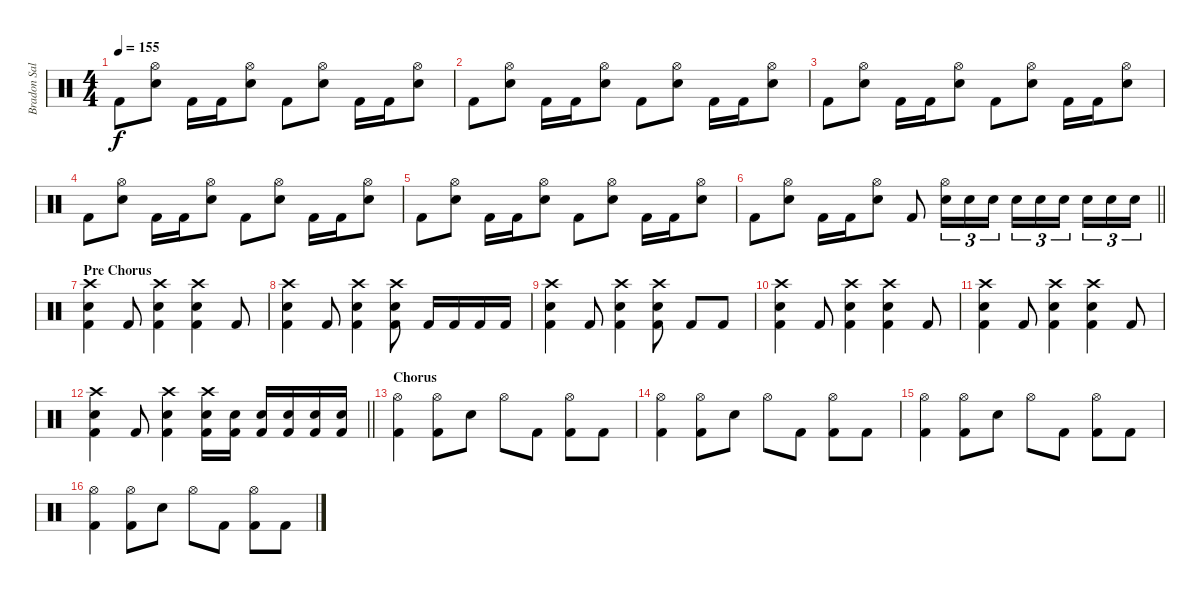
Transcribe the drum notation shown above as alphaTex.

\track ("Bradon Saller" "Bradon Sal") {instrument percussion}
\staff {score}
\articulation defaults
\ts (4 4)
\tempo 155
\clef neutral
\ks c "Kick (hit) 2".8{dy f}
("Hi-Hat (open)" "Electric Snare (hit)").8 "Kick (hit) 2".16 "Kick (hit) 2".16 ("Hi-Hat (open)" "Electric Snare (hit)").8 "Kick (hit) 2".8 ("Hi-Hat (open)" "Electric Snare (hit)").8 "Kick (hit) 2".16 "Kick (hit) 2".16 ("Hi-Hat (open)" "Electric Snare (hit)").8 |
"Kick (hit) 2".8 ("Hi-Hat (open)" "Electric Snare (hit)").8 "Kick (hit) 2".16 "Kick (hit) 2".16 ("Hi-Hat (open)" "Electric Snare (hit)").8 "Kick (hit) 2".8 ("Hi-Hat (open)" "Electric Snare (hit)").8 "Kick (hit) 2".16 "Kick (hit) 2".16 ("Hi-Hat (open)" "Electric Snare (hit)").8 |
"Kick (hit) 2".8 ("Hi-Hat (open)" "Electric Snare (hit)").8 "Kick (hit) 2".16 "Kick (hit) 2".16 ("Hi-Hat (open)" "Electric Snare (hit)").8 "Kick (hit) 2".8 ("Hi-Hat (open)" "Electric Snare (hit)").8 "Kick (hit) 2".16 "Kick (hit) 2".16 ("Hi-Hat (open)" "Electric Snare (hit)").8 |
"Kick (hit) 2".8 ("Hi-Hat (open)" "Electric Snare (hit)").8 "Kick (hit) 2".16 "Kick (hit) 2".16 ("Hi-Hat (open)" "Electric Snare (hit)").8 "Kick (hit) 2".8 ("Hi-Hat (open)" "Electric Snare (hit)").8 "Kick (hit) 2".16 "Kick (hit) 2".16 ("Hi-Hat (open)" "Electric Snare (hit)").8 |
"Kick (hit) 2".8 ("Hi-Hat (open)" "Electric Snare (hit)").8 "Kick (hit) 2".16 "Kick (hit) 2".16 ("Hi-Hat (open)" "Electric Snare (hit)").8 "Kick (hit) 2".8 ("Hi-Hat (open)" "Electric Snare (hit)").8 "Kick (hit) 2".16 "Kick (hit) 2".16 ("Hi-Hat (open)" "Electric Snare (hit)").8 |
\barLineRight lightlight "Kick (hit) 2".8
("Hi-Hat (open)" "Electric Snare (hit)").8 "Kick (hit) 2".16 "Kick (hit) 2".16 ("Hi-Hat (open)" "Electric Snare (hit)").8 "Kick (hit) 2".8 ("Hi-Hat (open)" "Electric Snare (hit)").16{tu (3 2)} "Electric Snare (hit)".16{tu (3 2)} "Electric Snare (hit)".16{tu (3 2)} "Electric Snare (hit)".16{tu (3 2)} "Electric Snare (hit)".16{tu (3 2)} "Electric Snare (hit)".16{tu (3 2) beam splitsecondary} "Electric Snare (hit)".16{tu (3 2)} "Electric Snare (hit)".16{tu (3 2)} "Electric Snare (hit)".16{tu (3 2)} |
\section ("" "Pre Chorus")
("Crash high (hit)" "Electric Snare (hit)" "Kick (hit) 2").4 "Kick (hit) 2".8 ("Crash high (hit)" "Electric Snare (hit)" "Kick (hit) 2").4 ("Crash high (hit)" "Electric Snare (hit)" "Kick (hit) 2").4 "Kick (hit) 2".8 |
("Crash high (hit)" "Electric Snare (hit)" "Kick (hit) 2").4 "Kick (hit) 2".8 ("Crash high (hit)" "Electric Snare (hit)" "Kick (hit) 2").4 ("Crash high (hit)" "Electric Snare (hit)" "Kick (hit) 2").8 "Kick (hit) 2".16 "Kick (hit) 2".16 "Kick (hit) 2".16 "Kick (hit) 2".16 |
("Crash high (hit)" "Electric Snare (hit)" "Kick (hit) 2").4 "Kick (hit) 2".8 ("Crash high (hit)" "Electric Snare (hit)" "Kick (hit) 2").4 ("Crash high (hit)" "Electric Snare (hit)" "Kick (hit) 2").8 "Kick (hit) 2".8 "Kick (hit) 2".8 |
("Crash high (hit)" "Electric Snare (hit)" "Kick (hit) 2").4 "Kick (hit) 2".8 ("Crash high (hit)" "Electric Snare (hit)" "Kick (hit) 2").4 ("Crash high (hit)" "Electric Snare (hit)" "Kick (hit) 2").4 "Kick (hit) 2".8 |
("Crash high (hit)" "Electric Snare (hit)" "Kick (hit) 2").4 "Kick (hit) 2".8 ("Crash high (hit)" "Electric Snare (hit)" "Kick (hit) 2").4 ("Crash high (hit)" "Electric Snare (hit)" "Kick (hit) 2").4 "Kick (hit) 2".8 |
\barLineRight lightlight
("Crash high (hit)" "Electric Snare (hit)" "Kick (hit) 2").4 "Kick (hit) 2".8 ("Crash high (hit)" "Electric Snare (hit)" "Kick (hit) 2").4 ("Crash high (hit)" "Electric Snare (hit)" "Kick (hit) 2").16 ("Electric Snare (hit)" "Kick (hit) 2").16 ("Electric Snare (hit)" "Kick (hit) 2").16 ("Electric Snare (hit)" "Kick (hit) 2").16 ("Electric Snare (hit)" "Kick (hit) 2").16 ("Electric Snare (hit)" "Kick (hit) 2").16 |
\section ("" "Chorus")
("Hi-Hat (open)" "Kick (hit) 2").4 ("Hi-Hat (open)" "Kick (hit) 2").8 "Electric Snare (hit)".8 "Hi-Hat (open)".8 "Kick (hit) 2".8 ("Hi-Hat (open)" "Kick (hit) 2").8 "Kick (hit) 2".8 |
("Hi-Hat (open)" "Kick (hit) 2").4 ("Hi-Hat (open)" "Kick (hit) 2").8 "Electric Snare (hit)".8 "Hi-Hat (open)".8 "Kick (hit) 2".8 ("Hi-Hat (open)" "Kick (hit) 2").8 "Kick (hit) 2".8 |
("Hi-Hat (open)" "Kick (hit) 2").4 ("Hi-Hat (open)" "Kick (hit) 2").8 "Electric Snare (hit)".8 "Hi-Hat (open)".8 "Kick (hit) 2".8 ("Hi-Hat (open)" "Kick (hit) 2").8 "Kick (hit) 2".8 |
("Hi-Hat (open)" "Kick (hit) 2").4 ("Hi-Hat (open)" "Kick (hit) 2").8 "Electric Snare (hit)".8 "Hi-Hat (open)".8 "Kick (hit) 2".8 ("Hi-Hat (open)" "Kick (hit) 2").8 "Kick (hit) 2".8
